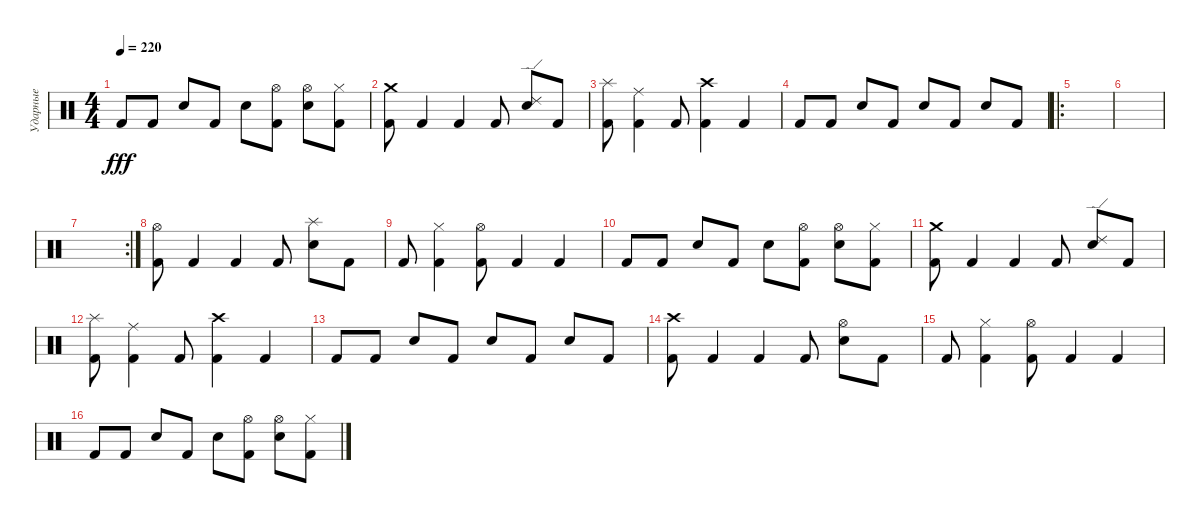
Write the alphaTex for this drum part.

\track ("Ударные" "Ударные") {instrument percussion}
\staff {score}
\articulation defaults
\ts (4 4)
\tempo 220
\clef neutral
\ks c "Kick (hit) 2".8{dy fff} "Kick (hit) 2".8 "Snare (hit) 2".8 "Kick (hit) 2".8 "Snare (hit) 2".8
("Kick (hit) 2" "Hi-Hat (open)").8 ("Snare (hit) 2" "Hi-Hat (open)").8 ("Kick (hit) 2" "Hi-Hat (closed)").8 |
("Kick (hit) 2" "Crash medium (hit)").8 "Kick (hit) 2".4 "Kick (hit) 2".4 "Kick (hit) 2".8 ("Snare (hit) 2" "Ride (edge) 2").8 "Kick (hit) 2".8 |
("Kick (hit) 2" "Splash (hit)").8 ("Kick (hit) 2" "Ride (middle)").4 "Kick (hit) 2".8 ("Kick (hit) 2" "Crash high (hit)").4 "Kick (hit) 2".4 |
"Kick (hit) 2".8 "Kick (hit) 2".8 "Snare (hit) 2".8 "Kick (hit) 2".8 "Snare (hit) 2".8 "Kick (hit) 2".8 "Snare (hit) 2".8 "Kick (hit) 2".8 |
\ro
|
|
\rc 2
|
("Kick (hit) 2" "Hi-Hat (open)").8 "Kick (hit) 2".4 "Kick (hit) 2".4 "Kick (hit) 2".8 ("Snare (hit) 2" "Splash (hit)").8 "Kick (hit) 2".8 |
"Kick (hit) 2".8 ("Kick (hit) 2" "Hi-Hat (closed)").4 ("Kick (hit) 2" "Hi-Hat (open)").8 "Kick (hit) 2".4 "Kick (hit) 2".4 |
"Kick (hit) 2".8 "Kick (hit) 2".8 "Snare (hit) 2".8 "Kick (hit) 2".8 "Snare (hit) 2".8 ("Kick (hit) 2" "Hi-Hat (open)").8 ("Snare (hit) 2" "Hi-Hat (open)").8 ("Kick (hit) 2" "Hi-Hat (closed)").8 |
("Kick (hit) 2" "Crash medium (hit)").8 "Kick (hit) 2".4 "Kick (hit) 2".4 "Kick (hit) 2".8 ("Snare (hit) 2" "Ride (edge) 2").8 "Kick (hit) 2".8 |
("Kick (hit) 2" "Splash (hit)").8 ("Kick (hit) 2" "Ride (middle)").4 "Kick (hit) 2".8 ("Kick (hit) 2" "Crash high (hit)").4 "Kick (hit) 2".4 |
"Kick (hit) 2".8 "Kick (hit) 2".8 "Snare (hit) 2".8 "Kick (hit) 2".8 "Snare (hit) 2".8 "Kick (hit) 2".8 "Snare (hit) 2".8 "Kick (hit) 2".8 |
("Kick (hit) 2" "Crash high (hit)").8 "Kick (hit) 2".4 "Kick (hit) 2".4 "Kick (hit) 2".8 ("Snare (hit) 2" "Hi-Hat (open)").8 "Kick (hit) 2".8 |
"Kick (hit) 2".8 ("Kick (hit) 2" "Hi-Hat (closed)").4 ("Kick (hit) 2" "Hi-Hat (open)").8 "Kick (hit) 2".4 "Kick (hit) 2".4 |
"Kick (hit) 2".8 "Kick (hit) 2".8 "Snare (hit) 2".8 "Kick (hit) 2".8 "Snare (hit) 2".8 ("Kick (hit) 2" "Hi-Hat (open)").8 ("Snare (hit) 2" "Hi-Hat (open)").8 ("Kick (hit) 2" "Hi-Hat (closed)").8
